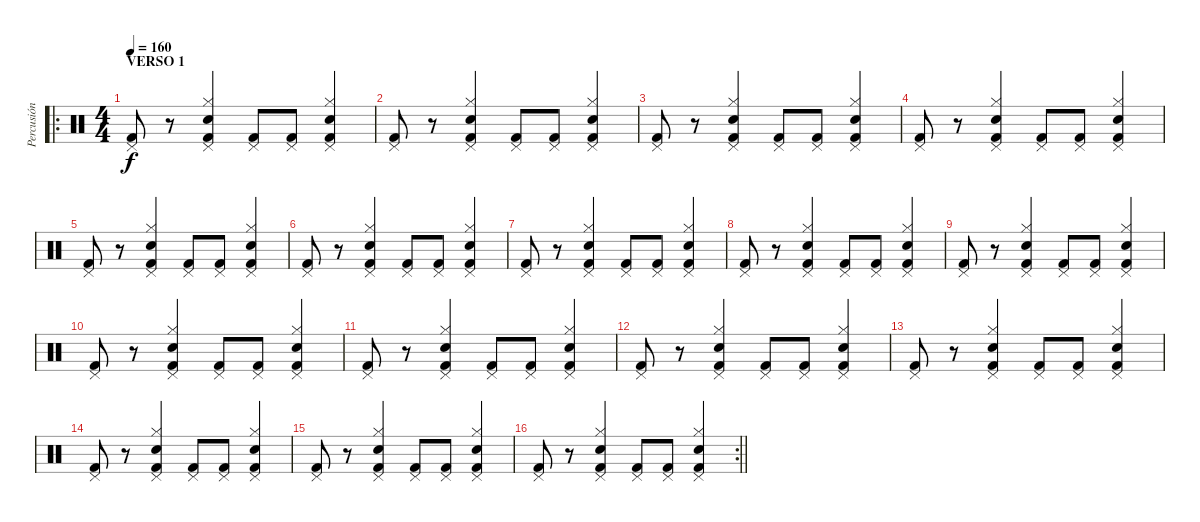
\track ("Percusión" "Percusión") {instrument percussion}
\staff {score}
\articulation defaults
\ro
\ts (4 4)
\section ("" "VERSO 1")
\tempo 160
\clef neutral
\ks c
("Pedal Hi-Hat (hit)" "Kick (hit) 2").8{dy f} r.8 ("Hi-Hat (closed)" "Pedal Hi-Hat (hit)" "Electric Snare (hit)" "Kick (hit) 2").4 ("Pedal Hi-Hat (hit)" "Kick (hit) 2").8 ("Pedal Hi-Hat (hit)" "Kick (hit) 2").8 ("Hi-Hat (closed)" "Pedal Hi-Hat (hit)" "Electric Snare (hit)" "Kick (hit) 2").4 |
("Pedal Hi-Hat (hit)" "Kick (hit) 2").8 r.8 ("Hi-Hat (closed)" "Pedal Hi-Hat (hit)" "Electric Snare (hit)" "Kick (hit) 2").4 ("Pedal Hi-Hat (hit)" "Kick (hit) 2").8 ("Pedal Hi-Hat (hit)" "Kick (hit) 2").8 ("Hi-Hat (closed)" "Pedal Hi-Hat (hit)" "Electric Snare (hit)" "Kick (hit) 2").4 |
("Pedal Hi-Hat (hit)" "Kick (hit) 2").8 r.8 ("Hi-Hat (closed)" "Pedal Hi-Hat (hit)" "Electric Snare (hit)" "Kick (hit) 2").4 ("Pedal Hi-Hat (hit)" "Kick (hit) 2").8 ("Pedal Hi-Hat (hit)" "Kick (hit) 2").8 ("Hi-Hat (closed)" "Pedal Hi-Hat (hit)" "Electric Snare (hit)" "Kick (hit) 2").4 |
("Pedal Hi-Hat (hit)" "Kick (hit) 2").8 r.8 ("Hi-Hat (closed)" "Pedal Hi-Hat (hit)" "Electric Snare (hit)" "Kick (hit) 2").4 ("Pedal Hi-Hat (hit)" "Kick (hit) 2").8 ("Pedal Hi-Hat (hit)" "Kick (hit) 2").8 ("Hi-Hat (closed)" "Pedal Hi-Hat (hit)" "Electric Snare (hit)" "Kick (hit) 2").4 |
("Pedal Hi-Hat (hit)" "Kick (hit) 2").8 r.8 ("Hi-Hat (closed)" "Pedal Hi-Hat (hit)" "Electric Snare (hit)" "Kick (hit) 2").4 ("Pedal Hi-Hat (hit)" "Kick (hit) 2").8 ("Pedal Hi-Hat (hit)" "Kick (hit) 2").8 ("Hi-Hat (closed)" "Pedal Hi-Hat (hit)" "Electric Snare (hit)" "Kick (hit) 2").4 |
("Pedal Hi-Hat (hit)" "Kick (hit) 2").8 r.8 ("Hi-Hat (closed)" "Pedal Hi-Hat (hit)" "Electric Snare (hit)" "Kick (hit) 2").4 ("Pedal Hi-Hat (hit)" "Kick (hit) 2").8 ("Pedal Hi-Hat (hit)" "Kick (hit) 2").8 ("Hi-Hat (closed)" "Pedal Hi-Hat (hit)" "Electric Snare (hit)" "Kick (hit) 2").4 |
("Pedal Hi-Hat (hit)" "Kick (hit) 2").8 r.8 ("Hi-Hat (closed)" "Pedal Hi-Hat (hit)" "Electric Snare (hit)" "Kick (hit) 2").4 ("Pedal Hi-Hat (hit)" "Kick (hit) 2").8 ("Pedal Hi-Hat (hit)" "Kick (hit) 2").8 ("Hi-Hat (closed)" "Pedal Hi-Hat (hit)" "Electric Snare (hit)" "Kick (hit) 2").4 |
("Pedal Hi-Hat (hit)" "Kick (hit) 2").8 r.8 ("Hi-Hat (closed)" "Pedal Hi-Hat (hit)" "Electric Snare (hit)" "Kick (hit) 2").4 ("Pedal Hi-Hat (hit)" "Kick (hit) 2").8 ("Pedal Hi-Hat (hit)" "Kick (hit) 2").8 ("Hi-Hat (closed)" "Pedal Hi-Hat (hit)" "Electric Snare (hit)" "Kick (hit) 2").4 |
("Pedal Hi-Hat (hit)" "Kick (hit) 2").8 r.8 ("Hi-Hat (closed)" "Pedal Hi-Hat (hit)" "Electric Snare (hit)" "Kick (hit) 2").4 ("Pedal Hi-Hat (hit)" "Kick (hit) 2").8 ("Pedal Hi-Hat (hit)" "Kick (hit) 2").8 ("Hi-Hat (closed)" "Pedal Hi-Hat (hit)" "Electric Snare (hit)" "Kick (hit) 2").4 |
("Pedal Hi-Hat (hit)" "Kick (hit) 2").8 r.8 ("Hi-Hat (closed)" "Pedal Hi-Hat (hit)" "Electric Snare (hit)" "Kick (hit) 2").4 ("Pedal Hi-Hat (hit)" "Kick (hit) 2").8 ("Pedal Hi-Hat (hit)" "Kick (hit) 2").8 ("Hi-Hat (closed)" "Pedal Hi-Hat (hit)" "Electric Snare (hit)" "Kick (hit) 2").4 |
("Pedal Hi-Hat (hit)" "Kick (hit) 2").8 r.8 ("Hi-Hat (closed)" "Pedal Hi-Hat (hit)" "Electric Snare (hit)" "Kick (hit) 2").4 ("Pedal Hi-Hat (hit)" "Kick (hit) 2").8 ("Pedal Hi-Hat (hit)" "Kick (hit) 2").8 ("Hi-Hat (closed)" "Pedal Hi-Hat (hit)" "Electric Snare (hit)" "Kick (hit) 2").4 |
("Pedal Hi-Hat (hit)" "Kick (hit) 2").8 r.8 ("Hi-Hat (closed)" "Pedal Hi-Hat (hit)" "Electric Snare (hit)" "Kick (hit) 2").4 ("Pedal Hi-Hat (hit)" "Kick (hit) 2").8 ("Pedal Hi-Hat (hit)" "Kick (hit) 2").8 ("Hi-Hat (closed)" "Pedal Hi-Hat (hit)" "Electric Snare (hit)" "Kick (hit) 2").4 |
("Pedal Hi-Hat (hit)" "Kick (hit) 2").8 r.8 ("Hi-Hat (closed)" "Pedal Hi-Hat (hit)" "Electric Snare (hit)" "Kick (hit) 2").4 ("Pedal Hi-Hat (hit)" "Kick (hit) 2").8 ("Pedal Hi-Hat (hit)" "Kick (hit) 2").8 ("Hi-Hat (closed)" "Pedal Hi-Hat (hit)" "Electric Snare (hit)" "Kick (hit) 2").4 |
("Pedal Hi-Hat (hit)" "Kick (hit) 2").8 r.8 ("Hi-Hat (closed)" "Pedal Hi-Hat (hit)" "Electric Snare (hit)" "Kick (hit) 2").4 ("Pedal Hi-Hat (hit)" "Kick (hit) 2").8 ("Pedal Hi-Hat (hit)" "Kick (hit) 2").8 ("Hi-Hat (closed)" "Pedal Hi-Hat (hit)" "Electric Snare (hit)" "Kick (hit) 2").4 |
("Pedal Hi-Hat (hit)" "Kick (hit) 2").8 r.8 ("Hi-Hat (closed)" "Pedal Hi-Hat (hit)" "Electric Snare (hit)" "Kick (hit) 2").4 ("Pedal Hi-Hat (hit)" "Kick (hit) 2").8 ("Pedal Hi-Hat (hit)" "Kick (hit) 2").8 ("Hi-Hat (closed)" "Pedal Hi-Hat (hit)" "Electric Snare (hit)" "Kick (hit) 2").4 |
\rc 2
\barLineRight lightlight
("Pedal Hi-Hat (hit)" "Kick (hit) 2").8 r.8 ("Hi-Hat (closed)" "Pedal Hi-Hat (hit)" "Electric Snare (hit)" "Kick (hit) 2").4 ("Pedal Hi-Hat (hit)" "Kick (hit) 2").8 ("Pedal Hi-Hat (hit)" "Kick (hit) 2").8 ("Hi-Hat (closed)" "Pedal Hi-Hat (hit)" "Electric Snare (hit)" "Kick (hit) 2").4
